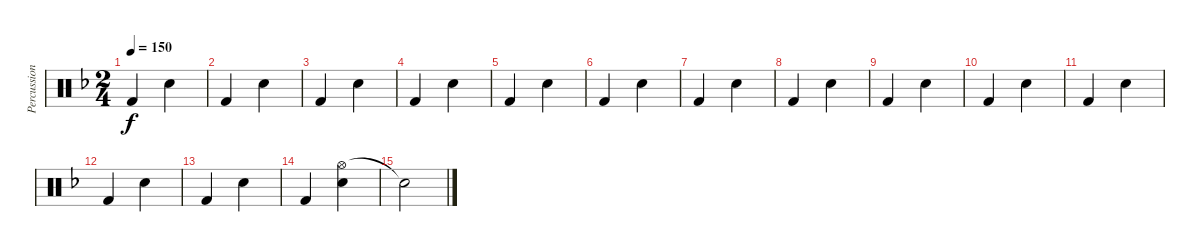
\track ("Percussions" "Percussion") {instrument percussion}
\staff {score}
\articulation defaults
\ts (2 4)
\tempo 150
\clef neutral
\ks f "Kick (hit) 2".4{dy f} "Snare (hit) 2".4
|
"Kick (hit) 2".4 "Snare (hit) 2".4 |
"Kick (hit) 2".4 "Snare (hit) 2".4 |
"Kick (hit) 2".4 "Snare (hit) 2".4 |
"Kick (hit) 2".4 "Snare (hit) 2".4 |
"Kick (hit) 2".4 "Snare (hit) 2".4 |
"Kick (hit) 2".4 "Snare (hit) 2".4 |
"Kick (hit) 2".4 "Snare (hit) 2".4 |
"Kick (hit) 2".4 "Snare (hit) 2".4 |
"Kick (hit) 2".4 "Snare (hit) 2".4 |
"Kick (hit) 2".4 "Snare (hit) 2".4 |
"Kick (hit) 2".4 "Snare (hit) 2".4 |
"Kick (hit) 2".4 "Snare (hit) 2".4 |
"Kick (hit) 2".4 ("Hi-Hat (open)" "Snare (hit) 2").4 |
"Snare (hit)"{t}.2
